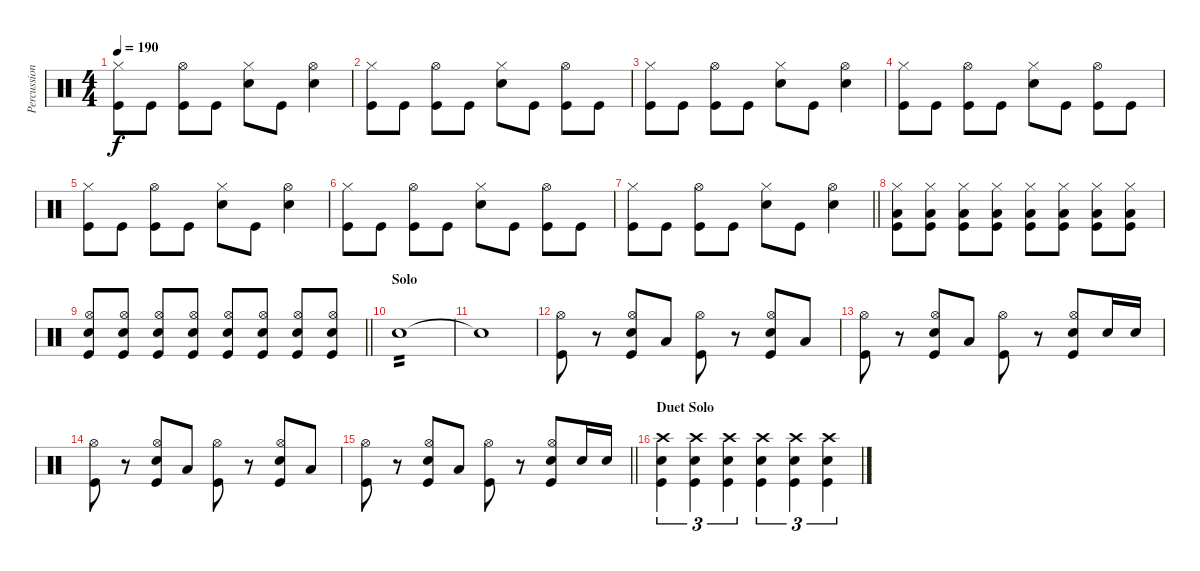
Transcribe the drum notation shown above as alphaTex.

\track ("Percussion" "Percussion") {instrument percussion}
\staff {score}
\articulation defaults
\ts (4 4)
\tempo 190
\clef neutral
\ks c
("Hi-Hat (closed)" "Kick (hit)").8{dy f} "Kick (hit)".8 ("Hi-Hat (open)" "Kick (hit)").8 "Kick (hit)".8 ("Hi-Hat (closed)" "Snare (hit) 2").8 "Kick (hit)".8 ("Hi-Hat (open)" "Snare (hit) 2").4 |
("Hi-Hat (closed)" "Kick (hit)").8 "Kick (hit)".8 ("Hi-Hat (open)" "Kick (hit)").8 "Kick (hit)".8 ("Hi-Hat (closed)" "Snare (hit) 2").8 "Kick (hit)".8 ("Hi-Hat (open)" "Kick (hit)").8 "Kick (hit)".8 |
("Hi-Hat (closed)" "Kick (hit)").8 "Kick (hit)".8 ("Hi-Hat (open)" "Kick (hit)").8 "Kick (hit)".8 ("Hi-Hat (closed)" "Snare (hit) 2").8 "Kick (hit)".8 ("Hi-Hat (open)" "Snare (hit) 2").4 |
("Hi-Hat (closed)" "Kick (hit)").8 "Kick (hit)".8 ("Hi-Hat (open)" "Kick (hit)").8 "Kick (hit)".8 ("Hi-Hat (closed)" "Snare (hit) 2").8 "Kick (hit)".8 ("Hi-Hat (open)" "Kick (hit)").8 "Kick (hit)".8 |
("Hi-Hat (closed)" "Kick (hit)").8 "Kick (hit)".8 ("Hi-Hat (open)" "Kick (hit)").8 "Kick (hit)".8 ("Hi-Hat (closed)" "Snare (hit) 2").8 "Kick (hit)".8 ("Hi-Hat (open)" "Snare (hit) 2").4 |
("Hi-Hat (closed)" "Kick (hit)").8 "Kick (hit)".8 ("Hi-Hat (open)" "Kick (hit)").8 "Kick (hit)".8 ("Hi-Hat (closed)" "Snare (hit) 2").8 "Kick (hit)".8 ("Hi-Hat (open)" "Kick (hit)").8 "Kick (hit)".8 |
\barLineRight lightlight
("Hi-Hat (closed)" "Kick (hit)").8 "Kick (hit)".8 ("Hi-Hat (open)" "Kick (hit)").8 "Kick (hit)".8 ("Hi-Hat (closed)" "Snare (hit) 2").8 "Kick (hit)".8 ("Hi-Hat (open)" "Snare (hit) 2").4 |
("Hi-Hat (closed)" "Low Tom (hit)" "Kick (hit)").8 ("Hi-Hat (closed)" "Low Tom (hit)" "Kick (hit)").8 ("Hi-Hat (closed)" "Low Tom (hit)" "Kick (hit)").8 ("Hi-Hat (closed)" "Low Tom (hit)" "Kick (hit)").8 ("Hi-Hat (closed)" "Low Tom (hit)" "Kick (hit)").8 ("Hi-Hat (closed)" "Low Tom (hit)" "Kick (hit)").8 ("Hi-Hat (closed)" "Low Tom (hit)" "Kick (hit)").8 ("Hi-Hat (closed)" "Low Tom (hit)" "Kick (hit)").8 |
\barLineRight lightlight
("Hi-Hat (open)" "Snare (hit) 2" "Kick (hit)").8 ("Hi-Hat (open)" "Snare (hit) 2" "Kick (hit)").8 ("Hi-Hat (open)" "Snare (hit) 2" "Kick (hit)").8 ("Hi-Hat (open)" "Snare (hit) 2" "Kick (hit)").8 ("Hi-Hat (open)" "Snare (hit) 2" "Kick (hit)").8 ("Hi-Hat (open)" "Snare (hit) 2" "Kick (hit)").8 ("Hi-Hat (open)" "Snare (hit) 2" "Kick (hit)").8 ("Hi-Hat (open)" "Snare (hit) 2" "Kick (hit)").8 |
\section ("" "Solo")
"Snare (hit) 2".1{tp 2} |
"Snare (hit) 2"{t}.1 |
("Hi-Hat (open)" "Kick (hit)").8 r.8 ("Snare (hit) 2" "Hi-Hat (open)" "Kick (hit)").8 "Low Tom (hit)".8 ("Hi-Hat (open)" "Kick (hit)").8 r.8 ("Snare (hit) 2" "Hi-Hat (open)" "Kick (hit)").8 "Low Tom (hit)".8 |
("Hi-Hat (open)" "Kick (hit)").8 r.8 ("Snare (hit) 2" "Hi-Hat (open)" "Kick (hit)").8 "Low Tom (hit)".8 ("Hi-Hat (open)" "Kick (hit)").8 r.8 ("Snare (hit) 2" "Hi-Hat (open)" "Kick (hit)").8 "Snare (hit) 2".16 "Snare (hit) 2".16 |
("Hi-Hat (open)" "Kick (hit)").8 r.8 ("Snare (hit) 2" "Hi-Hat (open)" "Kick (hit)").8 "Low Tom (hit)".8 ("Hi-Hat (open)" "Kick (hit)").8 r.8 ("Snare (hit) 2" "Hi-Hat (open)" "Kick (hit)").8 "Low Tom (hit)".8 |
\barLineRight lightlight
("Hi-Hat (open)" "Kick (hit)").8 r.8 ("Snare (hit) 2" "Hi-Hat (open)" "Kick (hit)").8 "Low Tom (hit)".8 ("Hi-Hat (open)" "Kick (hit)").8 r.8 ("Snare (hit) 2" "Hi-Hat (open)" "Kick (hit)").8 "Snare (hit) 2".16 "Snare (hit) 2".16 |
\section ("" "Duet Solo")
("Crash high (hit)" "Snare (hit) 2" "Kick (hit)").4{tu (3 2)} ("Crash high (hit)" "Snare (hit) 2" "Kick (hit)").4{tu (3 2)} ("Crash high (hit)" "Snare (hit) 2" "Kick (hit)").4{tu (3 2)} ("Crash high (hit)" "Snare (hit) 2" "Kick (hit)").4{tu (3 2)} ("Crash high (hit)" "Snare (hit) 2" "Kick (hit)").4{tu (3 2)} ("Crash high (hit)" "Snare (hit) 2" "Kick (hit)").4{tu (3 2)}
